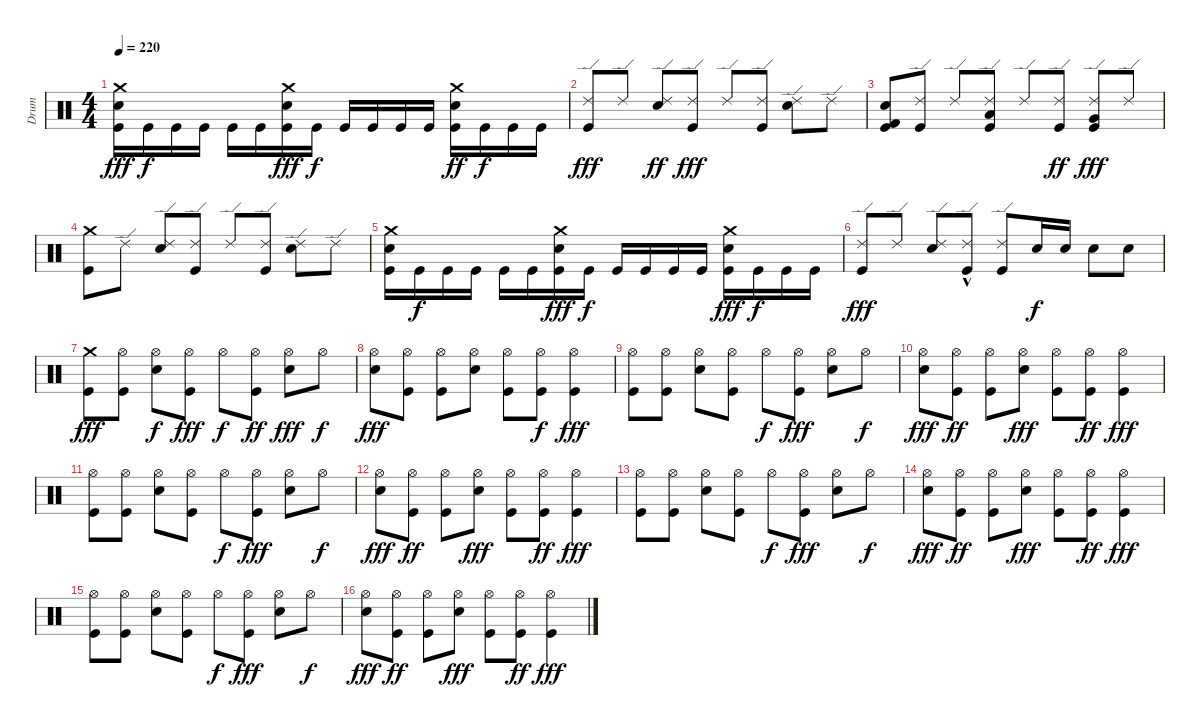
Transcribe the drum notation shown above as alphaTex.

\track ("Drum" "Drum") {instrument percussion}
\staff {score}
\articulation defaults
\ts (4 4)
\tempo 220
\clef neutral
\ks c
("Crash medium (hit)" "Snare (hit) 2" "Kick (hit)").16{dy fff} "Kick (hit)".16{dy f} "Kick (hit)".16 "Kick (hit)".16 "Kick (hit)".16 "Kick (hit)".16 ("Crash medium (hit)" "Snare (hit) 2" "Kick (hit)").16{dy fff} "Kick (hit)".16{dy f} "Kick (hit)".16 "Kick (hit)".16 "Kick (hit)".16 "Kick (hit)".16 ("Crash medium (hit)" "Snare (hit) 2" "Kick (hit)").16{dy ff} "Kick (hit)".16{dy f} "Kick (hit)".16 "Kick (hit)".16 |
("Ride (edge) 2" "Kick (hit)").8{dy fff} "Ride (edge) 2".8 ("Ride (edge) 2" "Snare (hit) 2").8{dy ff} ("Ride (edge) 2" "Kick (hit)").8{dy fff} "Ride (edge) 2".8 ("Ride (edge) 2" "Kick (hit)").8 ("Ride (edge) 2" "Snare (hit) 2").8 "Ride (edge) 2".8 |
("Kick (hit) 2" "Snare (hit) 2" "Kick (hit)").8 ("Ride (edge) 2" "Kick (hit)").8 "Ride (edge) 2".8 ("Ride (edge) 2" "Low Floor Tom (hit)" "Kick (hit)").8 "Ride (edge) 2".8 ("Ride (edge) 2" "Kick (hit)").8{dy ff} ("Ride (edge) 2" "Very Low Tom (hit)" "Kick (hit)").8{dy fff} "Ride (edge) 2".8 |
("Crash medium (hit)" "Kick (hit)").8 "Ride (edge) 2".8 ("Ride (edge) 2" "Snare (hit) 2").8 ("Ride (edge) 2" "Kick (hit)").8 "Ride (edge) 2".8 ("Ride (edge) 2" "Kick (hit)").8 ("Ride (edge) 2" "Snare (hit) 2").8 "Ride (edge) 2".8 |
("Crash medium (hit)" "Snare (hit) 2" "Kick (hit)").16 "Kick (hit)".16{dy f} "Kick (hit)".16 "Kick (hit)".16 "Kick (hit)".16 "Kick (hit)".16 ("Crash medium (hit)" "Snare (hit) 2" "Kick (hit)").16{dy fff} "Kick (hit)".16{dy f} "Kick (hit)".16 "Kick (hit)".16 "Kick (hit)".16 "Kick (hit)".16 ("Crash medium (hit)" "Snare (hit) 2" "Kick (hit)").16{dy fff} "Kick (hit)".16{dy f} "Kick (hit)".16 "Kick (hit)".16 |
("Ride (edge) 2" "Kick (hit)").8{dy fff} "Ride (edge) 2".8 ("Ride (edge) 2" "Snare (hit) 2").8 ("Ride (edge) 2"{hac} "Kick (hit)").8 ("Ride (edge) 2" "Kick (hit)").8 "Snare (hit) 2".16{dy f} "Snare (hit) 2".16 "Snare (hit) 2".8 "Snare (hit) 2".8 |
("Crash medium (hit)" "Kick (hit)").8{dy fff} ("Hi-Hat (open)" "Kick (hit)").8 ("Hi-Hat (open)" "Snare (hit) 2").8{dy f} ("Hi-Hat (open)" "Kick (hit)").8{dy fff} "Hi-Hat (open)".8{dy f} ("Hi-Hat (open)" "Kick (hit)").8{dy ff} ("Hi-Hat (open)" "Snare (hit) 2").8{dy fff} "Hi-Hat (open)".8{dy f} |
("Hi-Hat (open)" "Snare (hit) 2").8{dy fff} ("Hi-Hat (open)" "Kick (hit)").8 ("Hi-Hat (open)" "Kick (hit)").8 ("Hi-Hat (open)" "Snare (hit) 2").8 ("Hi-Hat (open)" "Kick (hit)").8 ("Hi-Hat (open)" "Kick (hit)").8{dy f} ("Hi-Hat (open)" "Kick (hit)").4{dy fff} |
("Hi-Hat (open)" "Kick (hit)").8 ("Hi-Hat (open)" "Kick (hit)").8 ("Hi-Hat (open)" "Snare (hit) 2").8 ("Hi-Hat (open)" "Kick (hit)").8 "Hi-Hat (open)".8{dy f} ("Hi-Hat (open)" "Kick (hit)").8{dy fff} ("Hi-Hat (open)" "Snare (hit) 2").8 "Hi-Hat (open)".8{dy f} |
("Hi-Hat (open)" "Snare (hit) 2").8{dy fff} ("Hi-Hat (open)" "Kick (hit)").8{dy ff} ("Hi-Hat (open)" "Kick (hit)").8 ("Hi-Hat (open)" "Snare (hit) 2").8{dy fff} ("Hi-Hat (open)" "Kick (hit)").8 ("Hi-Hat (open)" "Kick (hit)").8{dy ff} ("Hi-Hat (open)" "Kick (hit)").4{dy fff} |
("Hi-Hat (open)" "Kick (hit)").8 ("Hi-Hat (open)" "Kick (hit)").8 ("Hi-Hat (open)" "Snare (hit) 2").8 ("Hi-Hat (open)" "Kick (hit)").8 "Hi-Hat (open)".8{dy f} ("Hi-Hat (open)" "Kick (hit)").8{dy fff} ("Hi-Hat (open)" "Snare (hit) 2").8 "Hi-Hat (open)".8{dy f} |
("Hi-Hat (open)" "Snare (hit) 2").8{dy fff} ("Hi-Hat (open)" "Kick (hit)").8{dy ff} ("Hi-Hat (open)" "Kick (hit)").8 ("Hi-Hat (open)" "Snare (hit) 2").8{dy fff} ("Hi-Hat (open)" "Kick (hit)").8 ("Hi-Hat (open)" "Kick (hit)").8{dy ff} ("Hi-Hat (open)" "Kick (hit)").4{dy fff} |
("Hi-Hat (open)" "Kick (hit)").8 ("Hi-Hat (open)" "Kick (hit)").8 ("Hi-Hat (open)" "Snare (hit) 2").8 ("Hi-Hat (open)" "Kick (hit)").8 "Hi-Hat (open)".8{dy f} ("Hi-Hat (open)" "Kick (hit)").8{dy fff} ("Hi-Hat (open)" "Snare (hit) 2").8 "Hi-Hat (open)".8{dy f} |
("Hi-Hat (open)" "Snare (hit) 2").8{dy fff} ("Hi-Hat (open)" "Kick (hit)").8{dy ff} ("Hi-Hat (open)" "Kick (hit)").8 ("Hi-Hat (open)" "Snare (hit) 2").8{dy fff} ("Hi-Hat (open)" "Kick (hit)").8 ("Hi-Hat (open)" "Kick (hit)").8{dy ff} ("Hi-Hat (open)" "Kick (hit)").4{dy fff} |
("Hi-Hat (open)" "Kick (hit)").8 ("Hi-Hat (open)" "Kick (hit)").8 ("Hi-Hat (open)" "Snare (hit) 2").8 ("Hi-Hat (open)" "Kick (hit)").8 "Hi-Hat (open)".8{dy f} ("Hi-Hat (open)" "Kick (hit)").8{dy fff} ("Hi-Hat (open)" "Snare (hit) 2").8 "Hi-Hat (open)".8{dy f} |
("Hi-Hat (open)" "Snare (hit) 2").8{dy fff} ("Hi-Hat (open)" "Kick (hit)").8{dy ff} ("Hi-Hat (open)" "Kick (hit)").8 ("Hi-Hat (open)" "Snare (hit) 2").8{dy fff} ("Hi-Hat (open)" "Kick (hit)").8 ("Hi-Hat (open)" "Kick (hit)").8{dy ff} ("Hi-Hat (open)" "Kick (hit)").4{dy fff}
